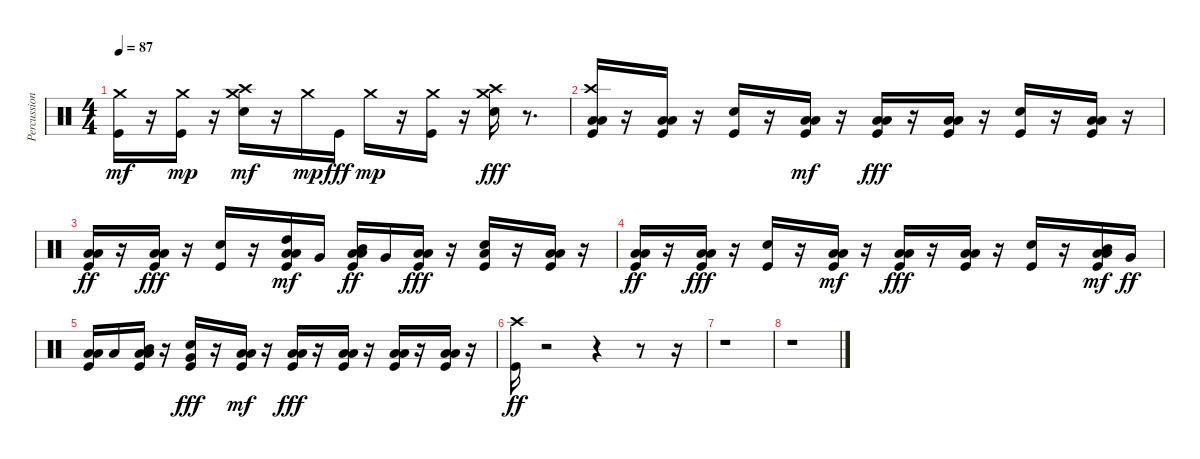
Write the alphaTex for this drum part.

\track ("Percussioni" "Percussion") {instrument percussion}
\staff {score}
\articulation defaults
\ts (4 4)
\tempo 87
\clef neutral
\ks c
("Kick (hit)" "Crash medium (hit)").16{dy mf} r.16 ("Kick (hit)" "Crash medium (hit)").16{dy mp} r.16 ("Electric Snare (hit)" "Crash high (hit)" "Crash medium (hit)").16{dy mf} r.16 "Crash medium (hit)".16{dy mp} "Kick (hit)".16{dy fff} "Crash medium (hit)".16{dy mp} r.16 ("Kick (hit)" "Crash medium (hit)").16 r.16 ("Electric Snare (hit)" "Crash high (hit)" "Crash medium (hit)").16{dy fff} r.8{d} |
("Kick (hit)" "Low Floor Tom (hit)" "Low Tom (hit)" "Crash high (hit)").16 r.16 ("Kick (hit)" "Low Floor Tom (hit)" "Low Tom (hit)").16 r.16 ("Kick (hit)" "Electric Snare (hit)").16 r.16 ("Kick (hit)" "Low Floor Tom (hit)" "Low Tom (hit)").16{dy mf} r.16 ("Kick (hit)" "Low Floor Tom (hit)" "Low Tom (hit)").16{dy fff} r.16 ("Kick (hit)" "Low Floor Tom (hit)" "Low Tom (hit)").16 r.16 ("Kick (hit)" "Electric Snare (hit)").16 r.16 ("Kick (hit)" "Low Floor Tom (hit)" "Low Tom (hit)").16 r.16 |
("Kick (hit)" "Low Floor Tom (hit)" "Low Tom (hit)").16{dy ff} r.16 ("Kick (hit)" "Low Floor Tom (hit)" "Low Tom (hit)").16{dy fff} r.16 ("Kick (hit)" "Electric Snare (hit)").16 r.16 ("Kick (hit)" "Low Floor Tom (hit)" "Low Tom (hit)" "High Tom (hit)").16{dy mf} "Very Low Tom (hit)".16 ("Kick (hit)" "Low Floor Tom (hit)" "Low Tom (hit)" "Mid Tom (hit)").16{dy ff} "Very Low Tom (hit)".16 ("Kick (hit)" "Low Floor Tom (hit)" "Low Tom (hit)").16{dy fff} r.16 ("Kick (hit)" "Electric Snare (hit)" "Low Floor Tom (hit)").16 r.16 ("Kick (hit)" "Low Floor Tom (hit)" "Low Tom (hit)").16 r.16 |
("Kick (hit)" "Low Floor Tom (hit)" "Low Tom (hit)").16{dy ff} r.16 ("Kick (hit)" "Low Floor Tom (hit)" "Low Tom (hit)").16{dy fff} r.16 ("Kick (hit)" "Electric Snare (hit)").16 r.16 ("Kick (hit)" "Low Floor Tom (hit)" "Low Tom (hit)").16{dy mf} r.16 ("Kick (hit)" "Low Floor Tom (hit)" "Low Tom (hit)").16{dy fff} r.16 ("Kick (hit)" "Low Floor Tom (hit)" "Low Tom (hit)").16 r.16 ("Kick (hit)" "Electric Snare (hit)").16 r.16 ("Kick (hit)" "Low Floor Tom (hit)" "Low Tom (hit)" "Mid Tom (hit)").16{dy mf} "Very Low Tom (hit)".16{dy ff} |
("Kick (hit)" "Low Floor Tom (hit)" "Low Tom (hit)").16 "Low Floor Tom (hit)".16 ("Kick (hit)" "Low Floor Tom (hit)" "Low Tom (hit)" "Mid Tom (hit)").16 r.16 ("Kick (hit)" "Electric Snare (hit)" "Very Low Tom (hit)").16{dy fff} r.16 ("Kick (hit)" "Low Floor Tom (hit)" "Low Tom (hit)").16{dy mf} r.16 ("Kick (hit)" "Low Floor Tom (hit)" "Low Tom (hit)").16{dy fff} r.16 ("Kick (hit)" "Low Floor Tom (hit)" "Low Tom (hit)").16 r.16 ("Kick (hit)" "Low Floor Tom (hit)" "Low Tom (hit)").16 r.16 ("Kick (hit)" "Low Floor Tom (hit)" "Low Tom (hit)").16 r.16 |
("Kick (hit)" "Crash high (hit)").16{dy ff} r.2 r.4 r.8 r.16 |
r.1 |
r.1
